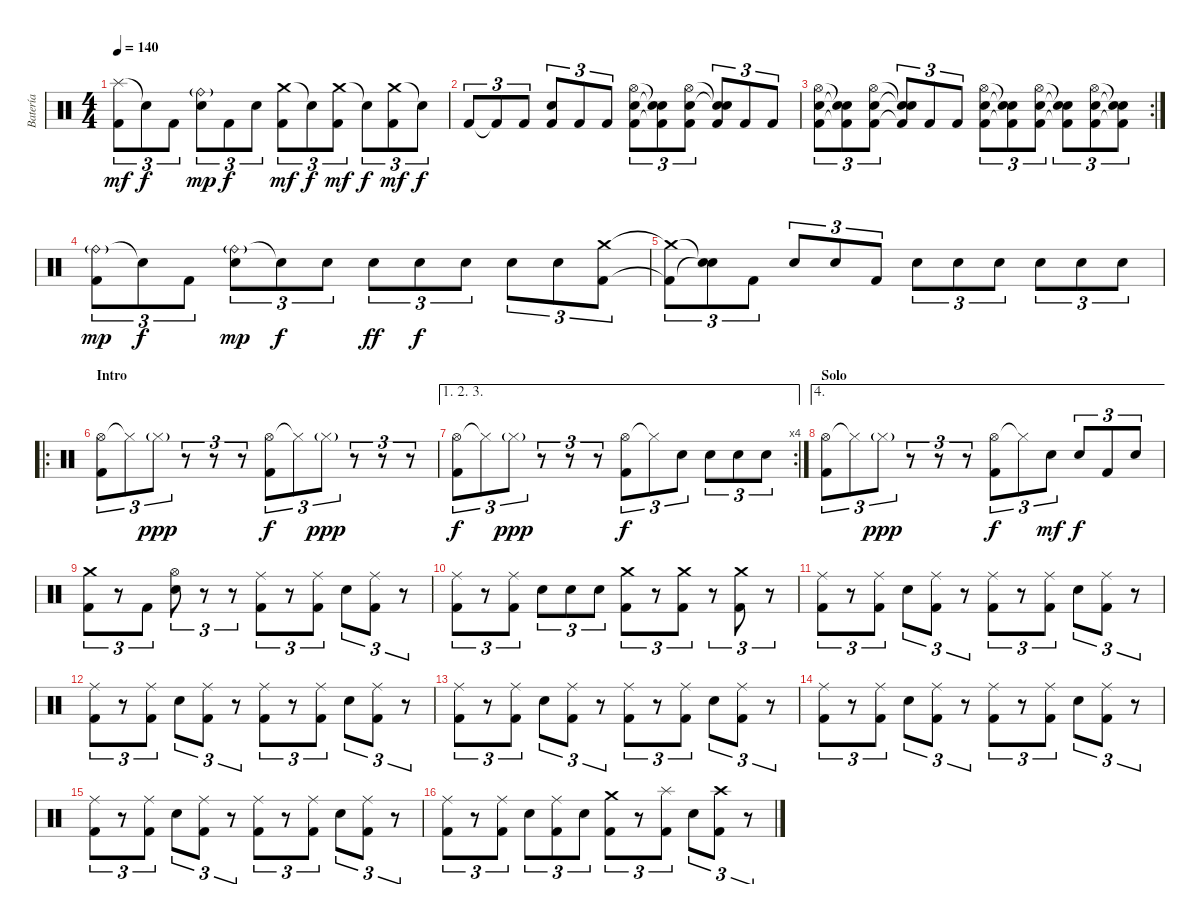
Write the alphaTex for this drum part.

\track ("Batería" "Batería") {instrument percussion}
\staff {score}
\articulation defaults
\ts (4 4)
\tempo 140
\clef neutral
\ks c
("Splash (hit)" "Kick (hit) 2").8{tu (3 2) dy mf} "Snare (hit)"{t}.8{tu (3 2) dy f} "Kick (hit) 2".8{tu (3 2)} ("Ride (bell)"{g} "Snare (hit) 2").8{tu (3 2) dy mp} "Kick (hit) 2".8{tu (3 2) dy f} "Snare (hit) 2".8{tu (3 2)} ("Crash medium (hit)" "Kick (hit) 2").8{tu (3 2) dy mf} "Snare (hit)"{t}.8{tu (3 2) dy f} ("Crash medium (hit)" "Kick (hit) 2").8{tu (3 2) dy mf} "Snare (hit)"{t}.8{tu (3 2) dy f} ("Crash medium (hit)" "Kick (hit) 2").8{tu (3 2) dy mf} "Snare (hit)"{t}.8{tu (3 2) dy f} |
"Kick (hit) 2".8{tu (3 2)} "Kick (hit) 2"{t}.8{tu (3 2)} "Kick (hit) 2".8{tu (3 2)} ("Snare (hit) 2" "Kick (hit) 2").8{tu (3 2)} "Kick (hit) 2".8{tu (3 2)} "Kick (hit) 2".8{tu (3 2)} ("Hi-Hat (open)" "Snare (hit) 2" "Kick (hit) 2").8{tu (3 2)} ("Snare (hit)"{t} "Snare (hit)"{t} "Kick (hit) 2"{t}).8{tu (3 2)} ("Hi-Hat (open)" "Snare (hit) 2" "Kick (hit) 2").8{tu (3 2)} ("Snare (hit)"{t} "Snare (hit)"{t} "Kick (hit) 2").8{tu (3 2)} "Kick (hit) 2".8{tu (3 2)} "Kick (hit) 2".8{tu (3 2)} |
\rc 2
("Hi-Hat (open)" "Snare (hit) 2" "Kick (hit) 2").8{tu (3 2)} ("Snare (hit)"{t} "Snare (hit)"{t} "Kick (hit) 2"{t}).8{tu (3 2)} ("Hi-Hat (open)" "Snare (hit) 2" "Kick (hit) 2").8{tu (3 2)} ("Snare (hit)"{t} "Snare (hit) 2"{t} "Kick (hit) 2"{t}).8{tu (3 2)} "Kick (hit) 2".8{tu (3 2)} "Kick (hit) 2".8{tu (3 2)} ("Hi-Hat (open)" "Snare (hit) 2" "Kick (hit) 2").8{tu (3 2)} ("Snare (hit)"{t} "Snare (hit)"{t} "Kick (hit) 2"{t}).8{tu (3 2)} ("Hi-Hat (open)" "Snare (hit) 2" "Kick (hit) 2").8{tu (3 2)} ("Snare (hit)"{t} "Snare (hit)"{t} "Kick (hit) 2"{t}).8{tu (3 2)} ("Hi-Hat (open)" "Snare (hit) 2" "Kick (hit) 2").8{tu (3 2)} ("Snare (hit)"{t} "Snare (hit)"{t} "Kick (hit) 2"{t}).8{tu (3 2)} |
("Ride (bell)"{g} "Kick (hit) 2").8{tu (3 2) dy mp} "Snare (hit)"{t}.8{tu (3 2) dy f} "Kick (hit) 2".8{tu (3 2)} ("Ride (bell)"{g} "Snare (hit) 2").8{tu (3 2) dy mp} "Snare (hit)"{t}.8{tu (3 2) dy f} "Snare (hit) 2".8{tu (3 2)} "Snare (hit) 2".8{tu (3 2) dy ff} "Snare (hit) 2".8{tu (3 2) dy f} "Snare (hit) 2".8{tu (3 2)} "Snare (hit) 2".8{tu (3 2)} "Snare (hit) 2".8{tu (3 2)} ("Crash medium (hit)" "Kick (hit) 2").8{tu (3 2)} |
("Crash medium (hit)"{t} "Kick (hit) 2"{t}).8{tu (3 2)} ("Snare (hit)"{t} "Snare (hit)"{t}).8{tu (3 2)} "Kick (hit) 2".8{tu (3 2)} "Snare (hit) 2".8{tu (3 2)} "Snare (hit) 2".8{tu (3 2)} "Kick (hit) 2".8{tu (3 2)} "Snare (hit) 2".8{tu (3 2)} "Snare (hit) 2".8{tu (3 2)} "Snare (hit) 2".8{tu (3 2)} "Snare (hit) 2".8{tu (3 2)} "Snare (hit) 2".8{tu (3 2)} "Snare (hit) 2".8{tu (3 2)} |
\ro
\section ("" "Intro")
("Hi-Hat (open)" "Kick (hit) 2").8{tu (3 2)} "Hi-Hat (closed)"{t}.8{tu (3 2)} "Hi-Hat (closed)"{g}.8{tu (3 2) dy ppp} r.8{tu (3 2)} r.8{tu (3 2)} r.8{tu (3 2)} ("Hi-Hat (open)" "Kick (hit) 2").8{tu (3 2) dy f} "Hi-Hat (closed)"{t}.8{tu (3 2)} "Hi-Hat (closed)"{g}.8{tu (3 2) dy ppp} r.8{tu (3 2)} r.8{tu (3 2)} r.8{tu (3 2)} |
\ae (1 2 3)
\rc 4
("Hi-Hat (open)" "Kick (hit) 2").8{tu (3 2) dy f} "Hi-Hat (closed)"{t}.8{tu (3 2)} "Hi-Hat (closed)"{g}.8{tu (3 2) dy ppp} r.8{tu (3 2)} r.8{tu (3 2)} r.8{tu (3 2)} ("Hi-Hat (open)" "Kick (hit) 2").8{tu (3 2) dy f} "Hi-Hat (closed)"{t}.8{tu (3 2)} "Snare (hit) 2".8{tu (3 2)} "Snare (hit) 2".8{tu (3 2)} "Snare (hit) 2".8{tu (3 2)} "Snare (hit) 2".8{tu (3 2)} |
\ae 4
\section ("" "Solo")
("Hi-Hat (open)" "Kick (hit) 2").8{tu (3 2)} "Hi-Hat (closed)"{t}.8{tu (3 2)} "Hi-Hat (closed)"{g}.8{tu (3 2) dy ppp} r.8{tu (3 2)} r.8{tu (3 2)} r.8{tu (3 2)} ("Hi-Hat (open)" "Kick (hit) 2").8{tu (3 2) dy f} "Hi-Hat (closed)"{t}.8{tu (3 2)} "Snare (hit) 2".8{tu (3 2) dy mf} "Snare (hit) 2".8{tu (3 2) dy f} "Kick (hit) 2".8{tu (3 2)} "Snare (hit) 2".8{tu (3 2)} |
("Crash medium (hit)" "Kick (hit) 2").8{tu (3 2)} r.8{tu (3 2)} "Kick (hit) 2".8{tu (3 2)} ("Hi-Hat (open)" "Snare (hit) 2").8{tu (3 2)} r.8{tu (3 2)} r.8{tu (3 2)} ("Ride (middle)" "Kick (hit) 2").8{tu (3 2)} r.8{tu (3 2)} ("Ride (middle)" "Kick (hit) 2").8{tu (3 2)} "Snare (hit) 2".8{tu (3 2)} ("Ride (middle)" "Kick (hit) 2").8{tu (3 2)} r.8{tu (3 2)} |
("Ride (middle)" "Kick (hit) 2").8{tu (3 2)} r.8{tu (3 2)} ("Ride (middle)" "Kick (hit) 2").8{tu (3 2)} "Snare (hit) 2".8{tu (3 2)} "Snare (hit) 2".8{tu (3 2)} "Snare (hit) 2".8{tu (3 2)} ("Crash medium (hit)" "Kick (hit) 2").8{tu (3 2)} r.8{tu (3 2)} ("Crash medium (hit)" "Kick (hit) 2").8{tu (3 2)} r.8{tu (3 2)} ("Crash medium (hit)" "Kick (hit) 2").8{tu (3 2)} r.8{tu (3 2)} |
("Ride (middle)" "Kick (hit) 2").8{tu (3 2)} r.8{tu (3 2)} ("Ride (middle)" "Kick (hit) 2").8{tu (3 2)} "Snare (hit) 2".8{tu (3 2)} ("Ride (middle)" "Kick (hit) 2").8{tu (3 2)} r.8{tu (3 2)} ("Ride (middle)" "Kick (hit) 2").8{tu (3 2)} r.8{tu (3 2)} ("Ride (middle)" "Kick (hit) 2").8{tu (3 2)} "Snare (hit) 2".8{tu (3 2)} ("Ride (middle)" "Kick (hit) 2").8{tu (3 2)} r.8{tu (3 2)} |
("Ride (middle)" "Kick (hit) 2").8{tu (3 2)} r.8{tu (3 2)} ("Ride (middle)" "Kick (hit) 2").8{tu (3 2)} "Snare (hit) 2".8{tu (3 2)} ("Ride (middle)" "Kick (hit) 2").8{tu (3 2)} r.8{tu (3 2)} ("Ride (middle)" "Kick (hit) 2").8{tu (3 2)} r.8{tu (3 2)} ("Ride (middle)" "Kick (hit) 2").8{tu (3 2)} "Snare (hit) 2".8{tu (3 2)} ("Ride (middle)" "Kick (hit) 2").8{tu (3 2)} r.8{tu (3 2)} |
("Ride (middle)" "Kick (hit) 2").8{tu (3 2)} r.8{tu (3 2)} ("Ride (middle)" "Kick (hit) 2").8{tu (3 2)} "Snare (hit) 2".8{tu (3 2)} ("Ride (middle)" "Kick (hit) 2").8{tu (3 2)} r.8{tu (3 2)} ("Ride (middle)" "Kick (hit) 2").8{tu (3 2)} r.8{tu (3 2)} ("Ride (middle)" "Kick (hit) 2").8{tu (3 2)} "Snare (hit) 2".8{tu (3 2)} ("Ride (middle)" "Kick (hit) 2").8{tu (3 2)} r.8{tu (3 2)} |
("Ride (middle)" "Kick (hit) 2").8{tu (3 2)} r.8{tu (3 2)} ("Ride (middle)" "Kick (hit) 2").8{tu (3 2)} "Snare (hit) 2".8{tu (3 2)} ("Ride (middle)" "Kick (hit) 2").8{tu (3 2)} r.8{tu (3 2)} ("Ride (middle)" "Kick (hit) 2").8{tu (3 2)} r.8{tu (3 2)} ("Ride (middle)" "Kick (hit) 2").8{tu (3 2)} "Snare (hit) 2".8{tu (3 2)} ("Ride (middle)" "Kick (hit) 2").8{tu (3 2)} r.8{tu (3 2)} |
("Ride (middle)" "Kick (hit) 2").8{tu (3 2)} r.8{tu (3 2)} ("Ride (middle)" "Kick (hit) 2").8{tu (3 2)} "Snare (hit) 2".8{tu (3 2)} ("Ride (middle)" "Kick (hit) 2").8{tu (3 2)} r.8{tu (3 2)} ("Ride (middle)" "Kick (hit) 2").8{tu (3 2)} r.8{tu (3 2)} ("Ride (middle)" "Kick (hit) 2").8{tu (3 2)} "Snare (hit) 2".8{tu (3 2)} ("Ride (middle)" "Kick (hit) 2").8{tu (3 2)} r.8{tu (3 2)} |
("Ride (middle)" "Kick (hit) 2").8{tu (3 2)} r.8{tu (3 2)} ("Ride (middle)" "Kick (hit) 2").8{tu (3 2)} "Snare (hit) 2".8{tu (3 2)} ("Ride (middle)" "Kick (hit) 2").8{tu (3 2)} "Snare (hit) 2".8{tu (3 2)} ("Crash medium (hit)" "Kick (hit) 2").8{tu (3 2)} r.8{tu (3 2)} ("Splash (hit)" "Kick (hit) 2").8{tu (3 2)} "Snare (hit) 2".8{tu (3 2)} ("Crash high (hit)" "Kick (hit) 2").8{tu (3 2)} r.8{tu (3 2)}
